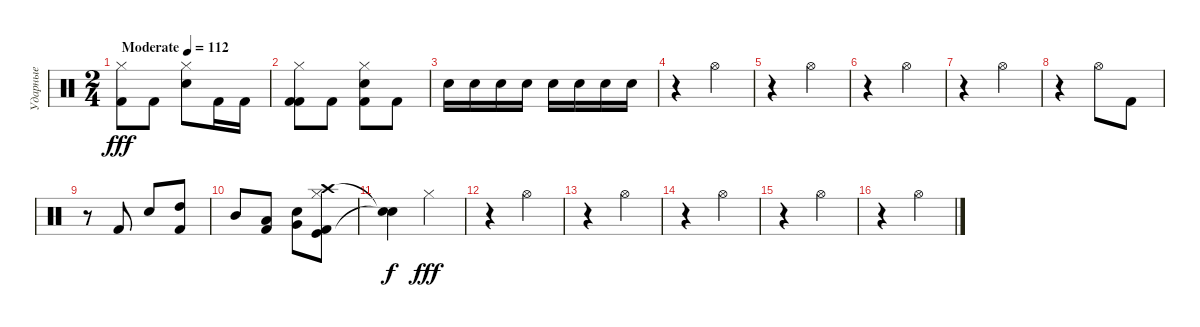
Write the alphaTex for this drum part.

\track ("Ударные" "Ударные") {instrument percussion}
\staff {score}
\articulation defaults
\ts (2 4)
\tempo (112 "Moderate")
\clef neutral
\ks c
("Hi-Hat (closed)" "Kick (hit) 2").8{dy fff} "Kick (hit) 2".8 ("Electric Snare (hit)" "Hi-Hat (closed)").8 "Kick (hit) 2".16 "Kick (hit) 2".16 |
("Kick (hit) 2" "Kick (hit) 2" "Hi-Hat (closed)").8 "Kick (hit) 2".8 ("Electric Snare (hit)" "Hi-Hat (closed)" "Kick (hit) 2").8 "Kick (hit) 2".8 |
"Electric Snare (hit)".16 "Electric Snare (hit)".16 "Electric Snare (hit)".16 "Electric Snare (hit)".16 "Electric Snare (hit)".16 "Electric Snare (hit)".16 "Electric Snare (hit)".16 "Electric Snare (hit)".16 |
r.4 "Hi-Hat (open)".4 |
r.4 "Hi-Hat (open)".4 |
r.4 "Hi-Hat (open)".4 |
r.4 "Hi-Hat (open)".4 |
r.4 "Hi-Hat (open)".8 "Kick (hit) 2".8 |
r.8 "Kick (hit) 2".8 "Electric Snare (hit)".8 ("Kick (hit) 2" "High Tom (hit)").8 |
"Mid Tom (hit)".8 ("Kick (hit) 2" "Low Tom (hit)").8 ("Electric Snare (hit)" "Very Low Tom (hit)").8 ("Kick (hit)" "Crash high (hit)" "Kick (hit) 2" "Hi-Hat (closed)").8 |
("Snare (hit)"{t} "Snare (hit)"{t}).4{dy f} "Hi-Hat (closed)".4{dy fff} |
r.4 "Hi-Hat (open)".4 |
r.4 "Hi-Hat (open)".4 |
r.4 "Hi-Hat (open)".4 |
r.4 "Hi-Hat (open)".4 |
r.4 "Hi-Hat (open)".4
